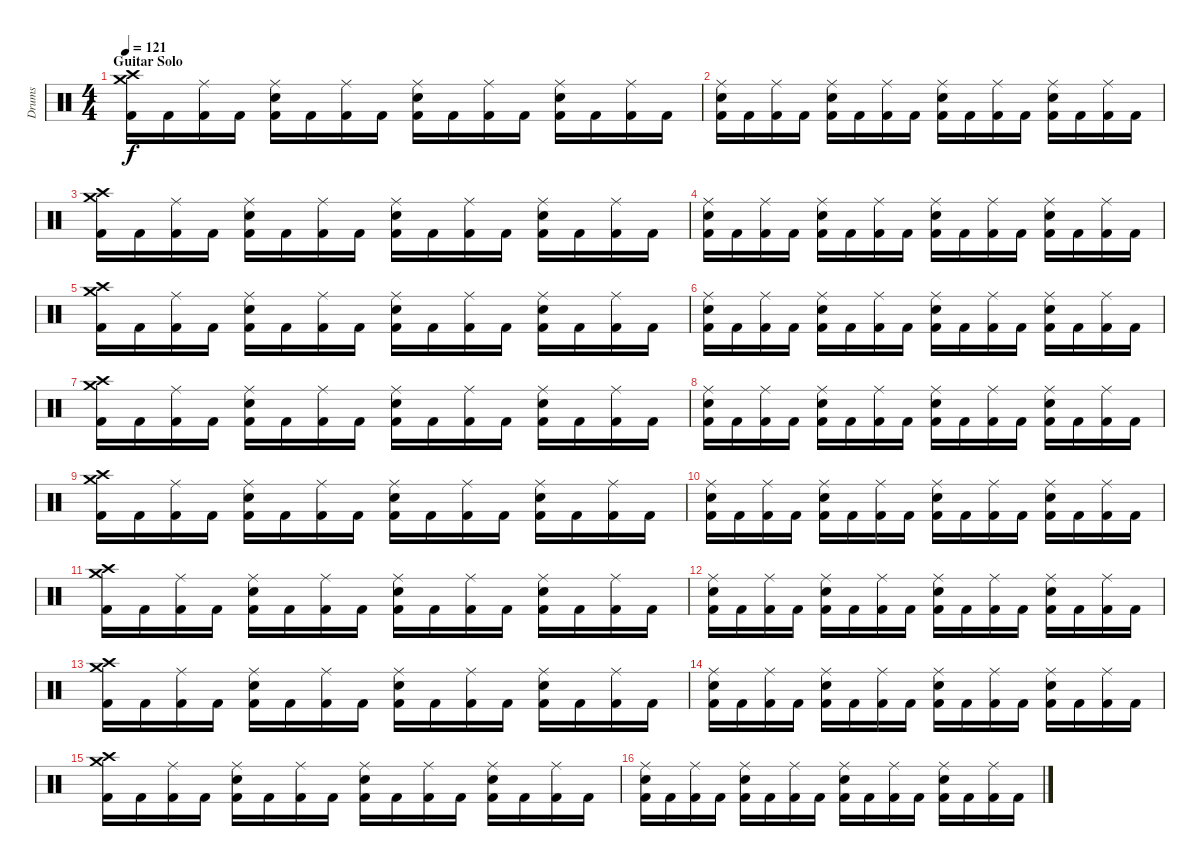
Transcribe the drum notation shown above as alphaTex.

\track ("Drums" "Drums") {instrument percussion}
\staff {score}
\articulation defaults
\ts (4 4)
\section ("" "Guitar Solo")
\tempo 121
\clef neutral
\ks c
("Crash high (hit)" "Crash medium (hit)" "Kick (hit) 2").16{dy f} "Kick (hit) 2".16 ("Ride (middle)" "Kick (hit) 2").16 "Kick (hit) 2".16 ("Ride (middle)" "Snare (hit) 2" "Kick (hit) 2").16 "Kick (hit) 2".16 ("Ride (middle)" "Kick (hit) 2").16 "Kick (hit) 2".16 ("Ride (middle)" "Snare (hit) 2" "Kick (hit) 2").16 "Kick (hit) 2".16 ("Ride (middle)" "Kick (hit) 2").16 "Kick (hit) 2".16 ("Ride (middle)" "Snare (hit) 2" "Kick (hit) 2").16 "Kick (hit) 2".16 ("Ride (middle)" "Kick (hit) 2").16 "Kick (hit) 2".16 |
("Ride (middle)" "Snare (hit) 2" "Kick (hit) 2").16 "Kick (hit) 2".16 ("Ride (middle)" "Kick (hit) 2").16 "Kick (hit) 2".16 ("Ride (middle)" "Snare (hit) 2" "Kick (hit) 2").16 "Kick (hit) 2".16 ("Ride (middle)" "Kick (hit) 2").16 "Kick (hit) 2".16 ("Ride (middle)" "Snare (hit) 2" "Kick (hit) 2").16 "Kick (hit) 2".16 ("Ride (middle)" "Kick (hit) 2").16 "Kick (hit) 2".16 ("Ride (middle)" "Snare (hit) 2" "Kick (hit) 2").16 "Kick (hit) 2".16 ("Ride (middle)" "Kick (hit) 2").16 "Kick (hit) 2".16 |
("Crash high (hit)" "Crash medium (hit)" "Kick (hit) 2").16 "Kick (hit) 2".16 ("Ride (middle)" "Kick (hit) 2").16 "Kick (hit) 2".16 ("Ride (middle)" "Snare (hit) 2" "Kick (hit) 2").16 "Kick (hit) 2".16 ("Ride (middle)" "Kick (hit) 2").16 "Kick (hit) 2".16 ("Ride (middle)" "Snare (hit) 2" "Kick (hit) 2").16 "Kick (hit) 2".16 ("Ride (middle)" "Kick (hit) 2").16 "Kick (hit) 2".16 ("Ride (middle)" "Snare (hit) 2" "Kick (hit) 2").16 "Kick (hit) 2".16 ("Ride (middle)" "Kick (hit) 2").16 "Kick (hit) 2".16 |
("Ride (middle)" "Snare (hit) 2" "Kick (hit) 2").16 "Kick (hit) 2".16 ("Ride (middle)" "Kick (hit) 2").16 "Kick (hit) 2".16 ("Ride (middle)" "Snare (hit) 2" "Kick (hit) 2").16 "Kick (hit) 2".16 ("Ride (middle)" "Kick (hit) 2").16 "Kick (hit) 2".16 ("Ride (middle)" "Snare (hit) 2" "Kick (hit) 2").16 "Kick (hit) 2".16 ("Ride (middle)" "Kick (hit) 2").16 "Kick (hit) 2".16 ("Ride (middle)" "Snare (hit) 2" "Kick (hit) 2").16 "Kick (hit) 2".16 ("Ride (middle)" "Kick (hit) 2").16 "Kick (hit) 2".16 |
("Crash high (hit)" "Crash medium (hit)" "Kick (hit) 2").16 "Kick (hit) 2".16 ("Ride (middle)" "Kick (hit) 2").16 "Kick (hit) 2".16 ("Ride (middle)" "Snare (hit) 2" "Kick (hit) 2").16 "Kick (hit) 2".16 ("Ride (middle)" "Kick (hit) 2").16 "Kick (hit) 2".16 ("Ride (middle)" "Snare (hit) 2" "Kick (hit) 2").16 "Kick (hit) 2".16 ("Ride (middle)" "Kick (hit) 2").16 "Kick (hit) 2".16 ("Ride (middle)" "Snare (hit) 2" "Kick (hit) 2").16 "Kick (hit) 2".16 ("Ride (middle)" "Kick (hit) 2").16 "Kick (hit) 2".16 |
("Ride (middle)" "Snare (hit) 2" "Kick (hit) 2").16 "Kick (hit) 2".16 ("Ride (middle)" "Kick (hit) 2").16 "Kick (hit) 2".16 ("Ride (middle)" "Snare (hit) 2" "Kick (hit) 2").16 "Kick (hit) 2".16 ("Ride (middle)" "Kick (hit) 2").16 "Kick (hit) 2".16 ("Ride (middle)" "Snare (hit) 2" "Kick (hit) 2").16 "Kick (hit) 2".16 ("Ride (middle)" "Kick (hit) 2").16 "Kick (hit) 2".16 ("Ride (middle)" "Snare (hit) 2" "Kick (hit) 2").16 "Kick (hit) 2".16 ("Ride (middle)" "Kick (hit) 2").16 "Kick (hit) 2".16 |
("Crash high (hit)" "Crash medium (hit)" "Kick (hit) 2").16 "Kick (hit) 2".16 ("Ride (middle)" "Kick (hit) 2").16 "Kick (hit) 2".16 ("Ride (middle)" "Snare (hit) 2" "Kick (hit) 2").16 "Kick (hit) 2".16 ("Ride (middle)" "Kick (hit) 2").16 "Kick (hit) 2".16 ("Ride (middle)" "Snare (hit) 2" "Kick (hit) 2").16 "Kick (hit) 2".16 ("Ride (middle)" "Kick (hit) 2").16 "Kick (hit) 2".16 ("Ride (middle)" "Snare (hit) 2" "Kick (hit) 2").16 "Kick (hit) 2".16 ("Ride (middle)" "Kick (hit) 2").16 "Kick (hit) 2".16 |
("Ride (middle)" "Snare (hit) 2" "Kick (hit) 2").16 "Kick (hit) 2".16 ("Ride (middle)" "Kick (hit) 2").16 "Kick (hit) 2".16 ("Ride (middle)" "Snare (hit) 2" "Kick (hit) 2").16 "Kick (hit) 2".16 ("Ride (middle)" "Kick (hit) 2").16 "Kick (hit) 2".16 ("Ride (middle)" "Snare (hit) 2" "Kick (hit) 2").16 "Kick (hit) 2".16 ("Ride (middle)" "Kick (hit) 2").16 "Kick (hit) 2".16 ("Ride (middle)" "Snare (hit) 2" "Kick (hit) 2").16 "Kick (hit) 2".16 ("Ride (middle)" "Kick (hit) 2").16 "Kick (hit) 2".16 |
("Crash high (hit)" "Crash medium (hit)" "Kick (hit) 2").16 "Kick (hit) 2".16 ("Ride (middle)" "Kick (hit) 2").16 "Kick (hit) 2".16 ("Ride (middle)" "Snare (hit) 2" "Kick (hit) 2").16 "Kick (hit) 2".16 ("Ride (middle)" "Kick (hit) 2").16 "Kick (hit) 2".16 ("Ride (middle)" "Snare (hit) 2" "Kick (hit) 2").16 "Kick (hit) 2".16 ("Ride (middle)" "Kick (hit) 2").16 "Kick (hit) 2".16 ("Ride (middle)" "Snare (hit) 2" "Kick (hit) 2").16 "Kick (hit) 2".16 ("Ride (middle)" "Kick (hit) 2").16 "Kick (hit) 2".16 |
("Ride (middle)" "Snare (hit) 2" "Kick (hit) 2").16 "Kick (hit) 2".16 ("Ride (middle)" "Kick (hit) 2").16 "Kick (hit) 2".16 ("Ride (middle)" "Snare (hit) 2" "Kick (hit) 2").16 "Kick (hit) 2".16 ("Ride (middle)" "Kick (hit) 2").16 "Kick (hit) 2".16 ("Ride (middle)" "Snare (hit) 2" "Kick (hit) 2").16 "Kick (hit) 2".16 ("Ride (middle)" "Kick (hit) 2").16 "Kick (hit) 2".16 ("Ride (middle)" "Snare (hit) 2" "Kick (hit) 2").16 "Kick (hit) 2".16 ("Ride (middle)" "Kick (hit) 2").16 "Kick (hit) 2".16 |
("Crash high (hit)" "Crash medium (hit)" "Kick (hit) 2").16 "Kick (hit) 2".16 ("Ride (middle)" "Kick (hit) 2").16 "Kick (hit) 2".16 ("Ride (middle)" "Snare (hit) 2" "Kick (hit) 2").16 "Kick (hit) 2".16 ("Ride (middle)" "Kick (hit) 2").16 "Kick (hit) 2".16 ("Ride (middle)" "Snare (hit) 2" "Kick (hit) 2").16 "Kick (hit) 2".16 ("Ride (middle)" "Kick (hit) 2").16 "Kick (hit) 2".16 ("Ride (middle)" "Snare (hit) 2" "Kick (hit) 2").16 "Kick (hit) 2".16 ("Ride (middle)" "Kick (hit) 2").16 "Kick (hit) 2".16 |
("Ride (middle)" "Snare (hit) 2" "Kick (hit) 2").16 "Kick (hit) 2".16 ("Ride (middle)" "Kick (hit) 2").16 "Kick (hit) 2".16 ("Ride (middle)" "Snare (hit) 2" "Kick (hit) 2").16 "Kick (hit) 2".16 ("Ride (middle)" "Kick (hit) 2").16 "Kick (hit) 2".16 ("Ride (middle)" "Snare (hit) 2" "Kick (hit) 2").16 "Kick (hit) 2".16 ("Ride (middle)" "Kick (hit) 2").16 "Kick (hit) 2".16 ("Ride (middle)" "Snare (hit) 2" "Kick (hit) 2").16 "Kick (hit) 2".16 ("Ride (middle)" "Kick (hit) 2").16 "Kick (hit) 2".16 |
("Crash high (hit)" "Crash medium (hit)" "Kick (hit) 2").16 "Kick (hit) 2".16 ("Ride (middle)" "Kick (hit) 2").16 "Kick (hit) 2".16 ("Ride (middle)" "Snare (hit) 2" "Kick (hit) 2").16 "Kick (hit) 2".16 ("Ride (middle)" "Kick (hit) 2").16 "Kick (hit) 2".16 ("Ride (middle)" "Snare (hit) 2" "Kick (hit) 2").16 "Kick (hit) 2".16 ("Ride (middle)" "Kick (hit) 2").16 "Kick (hit) 2".16 ("Ride (middle)" "Snare (hit) 2" "Kick (hit) 2").16 "Kick (hit) 2".16 ("Ride (middle)" "Kick (hit) 2").16 "Kick (hit) 2".16 |
("Ride (middle)" "Snare (hit) 2" "Kick (hit) 2").16 "Kick (hit) 2".16 ("Ride (middle)" "Kick (hit) 2").16 "Kick (hit) 2".16 ("Ride (middle)" "Snare (hit) 2" "Kick (hit) 2").16 "Kick (hit) 2".16 ("Ride (middle)" "Kick (hit) 2").16 "Kick (hit) 2".16 ("Ride (middle)" "Snare (hit) 2" "Kick (hit) 2").16 "Kick (hit) 2".16 ("Ride (middle)" "Kick (hit) 2").16 "Kick (hit) 2".16 ("Ride (middle)" "Snare (hit) 2" "Kick (hit) 2").16 "Kick (hit) 2".16 ("Ride (middle)" "Kick (hit) 2").16 "Kick (hit) 2".16 |
("Crash high (hit)" "Crash medium (hit)" "Kick (hit) 2").16 "Kick (hit) 2".16 ("Ride (middle)" "Kick (hit) 2").16 "Kick (hit) 2".16 ("Ride (middle)" "Snare (hit) 2" "Kick (hit) 2").16 "Kick (hit) 2".16 ("Ride (middle)" "Kick (hit) 2").16 "Kick (hit) 2".16 ("Ride (middle)" "Snare (hit) 2" "Kick (hit) 2").16 "Kick (hit) 2".16 ("Ride (middle)" "Kick (hit) 2").16 "Kick (hit) 2".16 ("Ride (middle)" "Snare (hit) 2" "Kick (hit) 2").16 "Kick (hit) 2".16 ("Ride (middle)" "Kick (hit) 2").16 "Kick (hit) 2".16 |
("Ride (middle)" "Snare (hit) 2" "Kick (hit) 2").16 "Kick (hit) 2".16 ("Ride (middle)" "Kick (hit) 2").16 "Kick (hit) 2".16 ("Ride (middle)" "Snare (hit) 2" "Kick (hit) 2").16 "Kick (hit) 2".16 ("Ride (middle)" "Kick (hit) 2").16 "Kick (hit) 2".16 ("Ride (middle)" "Snare (hit) 2" "Kick (hit) 2").16 "Kick (hit) 2".16 ("Ride (middle)" "Kick (hit) 2").16 "Kick (hit) 2".16 ("Ride (middle)" "Snare (hit) 2" "Kick (hit) 2").16 "Kick (hit) 2".16 ("Ride (middle)" "Kick (hit) 2").16 "Kick (hit) 2".16
